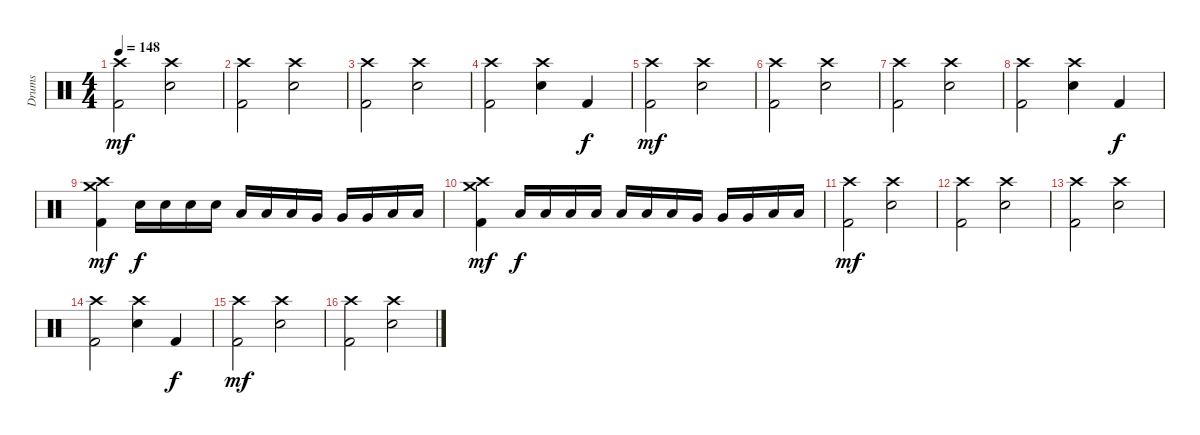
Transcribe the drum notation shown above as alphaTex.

\track ("Drums" "Drums") {instrument percussion}
\staff
\articulation defaults
\ts (4 4)
\tempo 148
\clef neutral
\ks c
("Crash high (hit)" "Kick (hit) 2").2{dy mf} ("Crash high (hit)" "Snare (hit) 2").2 |
("Crash high (hit)" "Kick (hit) 2").2 ("Crash high (hit)" "Snare (hit) 2").2 |
("Crash high (hit)" "Kick (hit) 2").2 ("Crash high (hit)" "Snare (hit) 2").2 |
("Crash high (hit)" "Kick (hit) 2").2 ("Crash high (hit)" "Snare (hit) 2").4 "Kick (hit) 2".4{dy f} |
("Crash high (hit)" "Kick (hit) 2").2{dy mf} ("Crash high (hit)" "Snare (hit) 2").2 |
("Crash high (hit)" "Kick (hit) 2").2 ("Crash high (hit)" "Snare (hit) 2").2 |
("Crash high (hit)" "Kick (hit) 2").2 ("Crash high (hit)" "Snare (hit) 2").2 |
("Crash high (hit)" "Kick (hit) 2").2 ("Crash high (hit)" "Snare (hit) 2").4 "Kick (hit) 2".4{dy f} |
("Crash medium (hit)" "Crash high (hit)" "Kick (hit) 2").4{dy mf} "Snare (hit) 2".16{dy f} "Snare (hit) 2".16 "Snare (hit) 2".16 "Snare (hit) 2".16 "Low Tom (hit)".16 "Low Tom (hit)".16 "Low Tom (hit)".16 "Very Low Tom (hit)".16 "Very Low Tom (hit)".16 "Very Low Tom (hit)".16 "Low Floor Tom (hit)".16 "Low Floor Tom (hit)".16 |
("Crash medium (hit)" "Crash high (hit)" "Kick (hit) 2").4{dy mf} "Low Floor Tom (hit)".16{dy f} "Low Floor Tom (hit)".16 "Low Floor Tom (hit)".16 "Low Floor Tom (hit)".16 "Low Tom (hit)".16 "Low Tom (hit)".16 "Low Tom (hit)".16 "Very Low Tom (hit)".16 "Very Low Tom (hit)".16 "Very Low Tom (hit)".16 "Low Floor Tom (hit)".16 "Low Floor Tom (hit)".16 |
("Crash high (hit)" "Kick (hit) 2").2{dy mf} ("Crash high (hit)" "Snare (hit) 2").2 |
("Crash high (hit)" "Kick (hit) 2").2 ("Crash high (hit)" "Snare (hit) 2").2 |
("Crash high (hit)" "Kick (hit) 2").2 ("Crash high (hit)" "Snare (hit) 2").2 |
("Crash high (hit)" "Kick (hit) 2").2 ("Crash high (hit)" "Snare (hit) 2").4 "Kick (hit) 2".4{dy f} |
("Crash high (hit)" "Kick (hit) 2").2{dy mf} ("Crash high (hit)" "Snare (hit) 2").2 |
("Crash high (hit)" "Kick (hit) 2").2 ("Crash high (hit)" "Snare (hit) 2").2
